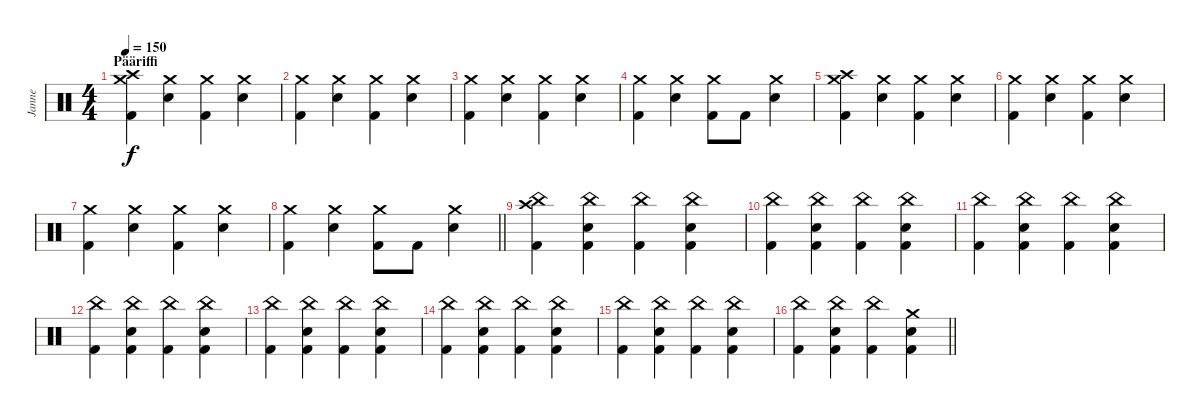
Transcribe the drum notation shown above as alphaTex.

\track ("Janne" "Janne") {instrument percussion}
\staff {score}
\articulation defaults
\ts (4 4)
\section ("" "Pääriffi")
\tempo 150
\clef neutral
\ks c
("Crash high (hit)" "Crash medium (hit)" "Kick (hit) 2").4{dy f} ("Crash medium (hit)" "Electric Snare (hit)").4 ("Crash medium (hit)" "Kick (hit) 2").4 ("Crash medium (hit)" "Electric Snare (hit)").4 |
("Crash medium (hit)" "Kick (hit) 2").4 ("Crash medium (hit)" "Electric Snare (hit)").4 ("Crash medium (hit)" "Kick (hit) 2").4 ("Crash medium (hit)" "Electric Snare (hit)").4 |
("Crash medium (hit)" "Kick (hit) 2").4 ("Crash medium (hit)" "Electric Snare (hit)").4 ("Crash medium (hit)" "Kick (hit) 2").4 ("Crash medium (hit)" "Electric Snare (hit)").4 |
("Crash medium (hit)" "Kick (hit) 2").4 ("Crash medium (hit)" "Electric Snare (hit)").4 ("Crash medium (hit)" "Kick (hit) 2").8 "Kick (hit) 2".8 ("Crash medium (hit)" "Electric Snare (hit)").4 |
("Crash high (hit)" "Crash medium (hit)" "Kick (hit) 2").4 ("Crash medium (hit)" "Electric Snare (hit)").4 ("Crash medium (hit)" "Kick (hit) 2").4 ("Crash medium (hit)" "Electric Snare (hit)").4 |
("Crash medium (hit)" "Kick (hit) 2").4 ("Crash medium (hit)" "Electric Snare (hit)").4 ("Crash medium (hit)" "Kick (hit) 2").4 ("Crash medium (hit)" "Electric Snare (hit)").4 |
("Crash medium (hit)" "Kick (hit) 2").4 ("Crash medium (hit)" "Electric Snare (hit)").4 ("Crash medium (hit)" "Kick (hit) 2").4 ("Crash medium (hit)" "Electric Snare (hit)").4 |
\barLineRight lightlight
("Crash medium (hit)" "Kick (hit) 2").4 ("Crash medium (hit)" "Electric Snare (hit)").4 ("Crash medium (hit)" "Kick (hit) 2").8 "Kick (hit) 2".8 ("Crash medium (hit)" "Electric Snare (hit)").4 |
\section ("" "")
("Crash high (hit)" "China (hit)" "Kick (hit) 2").4 ("China (hit)" "Electric Snare (hit)" "Kick (hit) 2").4 ("China (hit)" "Kick (hit) 2").4 ("China (hit)" "Electric Snare (hit)" "Kick (hit) 2").4 |
("China (hit)" "Kick (hit) 2").4 ("China (hit)" "Electric Snare (hit)" "Kick (hit) 2").4 ("China (hit)" "Kick (hit) 2").4 ("China (hit)" "Electric Snare (hit)" "Kick (hit) 2").4 |
("China (hit)" "Kick (hit) 2").4 ("China (hit)" "Electric Snare (hit)" "Kick (hit) 2").4 ("China (hit)" "Kick (hit) 2").4 ("China (hit)" "Electric Snare (hit)" "Kick (hit) 2").4 |
("China (hit)" "Kick (hit) 2").4 ("China (hit)" "Electric Snare (hit)" "Kick (hit) 2").4 ("China (hit)" "Kick (hit) 2").4 ("China (hit)" "Electric Snare (hit)" "Kick (hit) 2").4 |
("China (hit)" "Kick (hit) 2").4 ("China (hit)" "Electric Snare (hit)" "Kick (hit) 2").4 ("China (hit)" "Kick (hit) 2").4 ("China (hit)" "Electric Snare (hit)" "Kick (hit) 2").4 |
("China (hit)" "Kick (hit) 2").4 ("China (hit)" "Electric Snare (hit)" "Kick (hit) 2").4 ("China (hit)" "Kick (hit) 2").4 ("China (hit)" "Electric Snare (hit)" "Kick (hit) 2").4 |
("China (hit)" "Kick (hit) 2").4 ("China (hit)" "Electric Snare (hit)" "Kick (hit) 2").4 ("China (hit)" "Kick (hit) 2").4 ("China (hit)" "Electric Snare (hit)" "Kick (hit) 2").4 |
\barLineRight lightlight
("China (hit)" "Kick (hit) 2").4 ("China (hit)" "Electric Snare (hit)" "Kick (hit) 2").4 ("China (hit)" "Kick (hit) 2").4 ("Crash medium (hit)" "Electric Snare (hit)" "Kick (hit) 2").4
